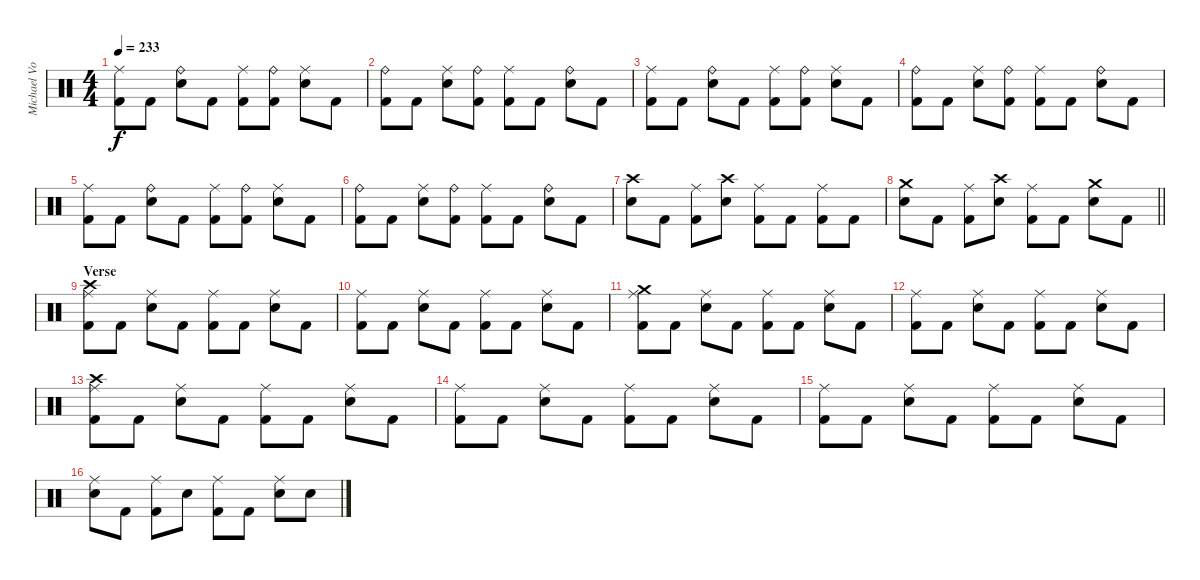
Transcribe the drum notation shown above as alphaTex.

\track ("Michael Von Knorring" "Michael Vo") {instrument percussion}
\staff {score}
\articulation defaults
\ts (4 4)
\tempo 233
\clef neutral
\ks c
("Ride (middle)" "Kick (hit) 2").8{dy f} "Kick (hit) 2".8 ("Ride (bell)" "Snare (hit) 2").8 "Kick (hit) 2".8 ("Ride (middle)" "Kick (hit) 2").8 ("Ride (bell)" "Kick (hit) 2").8 ("Ride (middle)" "Snare (hit) 2").8 "Kick (hit) 2".8 |
("Ride (bell)" "Kick (hit) 2").8 "Kick (hit) 2".8 ("Ride (middle)" "Snare (hit) 2").8 ("Ride (bell)" "Kick (hit) 2").8 ("Ride (middle)" "Kick (hit) 2").8 "Kick (hit) 2".8 ("Ride (bell)" "Snare (hit) 2").8 "Kick (hit) 2".8 |
("Ride (middle)" "Kick (hit) 2").8 "Kick (hit) 2".8 ("Ride (bell)" "Snare (hit) 2").8 "Kick (hit) 2".8 ("Ride (middle)" "Kick (hit) 2").8 ("Ride (bell)" "Kick (hit) 2").8 ("Ride (middle)" "Snare (hit) 2").8 "Kick (hit) 2".8 |
("Ride (bell)" "Kick (hit) 2").8 "Kick (hit) 2".8 ("Ride (middle)" "Snare (hit) 2").8 ("Ride (bell)" "Kick (hit) 2").8 ("Ride (middle)" "Kick (hit) 2").8 "Kick (hit) 2".8 ("Ride (bell)" "Snare (hit) 2").8 "Kick (hit) 2".8 |
("Ride (middle)" "Kick (hit) 2").8 "Kick (hit) 2".8 ("Ride (bell)" "Snare (hit) 2").8 "Kick (hit) 2".8 ("Ride (middle)" "Kick (hit) 2").8 ("Ride (bell)" "Kick (hit) 2").8 ("Ride (middle)" "Snare (hit) 2").8 "Kick (hit) 2".8 |
("Ride (bell)" "Kick (hit) 2").8 "Kick (hit) 2".8 ("Ride (middle)" "Snare (hit) 2").8 ("Ride (bell)" "Kick (hit) 2").8 ("Ride (middle)" "Kick (hit) 2").8 "Kick (hit) 2".8 ("Ride (bell)" "Snare (hit) 2").8 "Kick (hit) 2".8 |
("Crash high (hit)" "Snare (hit) 2").8 "Kick (hit) 2".8 ("Ride (middle)" "Kick (hit) 2").8 ("Crash high (hit)" "Snare (hit) 2").8 ("Ride (middle)" "Kick (hit) 2").8 "Kick (hit) 2".8 ("Ride (middle)" "Kick (hit) 2").8 "Kick (hit) 2".8 |
\barLineRight lightlight
("Crash medium (hit)" "Snare (hit) 2").8 "Kick (hit) 2".8 ("Ride (middle)" "Kick (hit) 2").8 ("Crash high (hit)" "Snare (hit) 2").8 ("Ride (middle)" "Kick (hit) 2").8 "Kick (hit) 2".8 ("Crash medium (hit)" "Snare (hit) 2").8 "Kick (hit) 2".8 |
\section ("" "Verse")
("Crash high (hit)" "Ride (middle)" "Kick (hit) 2").8 "Kick (hit) 2".8 ("Ride (middle)" "Snare (hit) 2").8 "Kick (hit) 2".8 ("Ride (middle)" "Kick (hit) 2").8 "Kick (hit) 2".8 ("Ride (middle)" "Snare (hit) 2").8 "Kick (hit) 2".8 |
("Ride (middle)" "Kick (hit) 2").8 "Kick (hit) 2".8 ("Ride (middle)" "Snare (hit) 2").8 "Kick (hit) 2".8 ("Ride (middle)" "Kick (hit) 2").8 "Kick (hit) 2".8 ("Ride (middle)" "Snare (hit) 2").8 "Kick (hit) 2".8 |
("Crash medium (hit)" "Ride (middle)" "Kick (hit) 2").8 "Kick (hit) 2".8 ("Ride (middle)" "Snare (hit) 2").8 "Kick (hit) 2".8 ("Ride (middle)" "Kick (hit) 2").8 "Kick (hit) 2".8 ("Ride (middle)" "Snare (hit) 2").8 "Kick (hit) 2".8 |
("Ride (middle)" "Kick (hit) 2").8 "Kick (hit) 2".8 ("Ride (middle)" "Snare (hit) 2").8 "Kick (hit) 2".8 ("Ride (middle)" "Kick (hit) 2").8 "Kick (hit) 2".8 ("Ride (middle)" "Snare (hit) 2").8 "Kick (hit) 2".8 |
("Crash high (hit)" "Ride (middle)" "Kick (hit) 2").8 "Kick (hit) 2".8 ("Ride (middle)" "Snare (hit) 2").8 "Kick (hit) 2".8 ("Ride (middle)" "Kick (hit) 2").8 "Kick (hit) 2".8 ("Ride (middle)" "Snare (hit) 2").8 "Kick (hit) 2".8 |
("Ride (middle)" "Kick (hit) 2").8 "Kick (hit) 2".8 ("Ride (middle)" "Snare (hit) 2").8 "Kick (hit) 2".8 ("Ride (middle)" "Kick (hit) 2").8 "Kick (hit) 2".8 ("Ride (middle)" "Snare (hit) 2").8 "Kick (hit) 2".8 |
("Ride (middle)" "Kick (hit) 2").8 "Kick (hit) 2".8 ("Ride (middle)" "Snare (hit) 2").8 "Kick (hit) 2".8 ("Ride (middle)" "Kick (hit) 2").8 "Kick (hit) 2".8 ("Ride (middle)" "Snare (hit) 2").8 "Kick (hit) 2".8 |
("Ride (middle)" "Snare (hit) 2").8 "Kick (hit) 2".8 ("Ride (middle)" "Kick (hit) 2").8 "Snare (hit) 2".8 ("Ride (middle)" "Kick (hit) 2").8 "Kick (hit) 2".8 ("Ride (middle)" "Snare (hit) 2").8 "Snare (hit) 2".8
